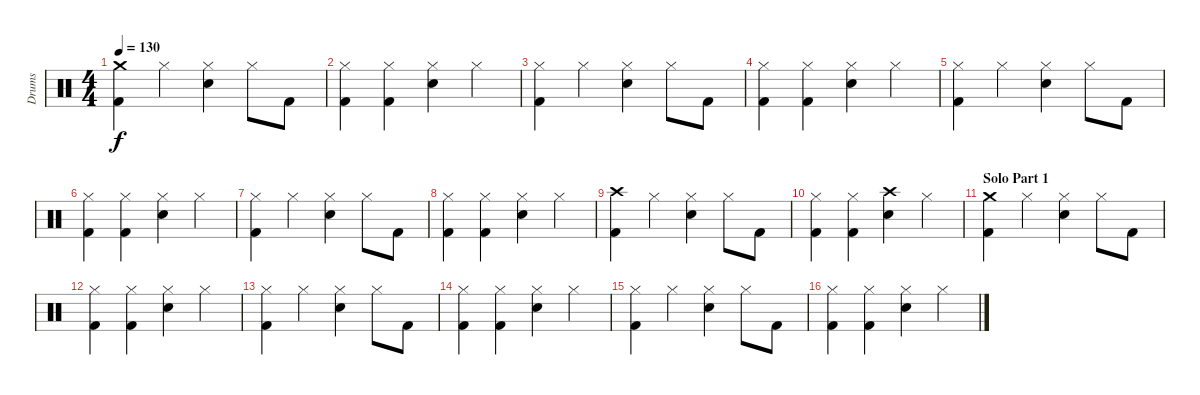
\track ("Drums" "Drums") {instrument percussion}
\staff {score}
\articulation defaults
\ts (4 4)
\tempo 130
\clef neutral
\ks c
("Crash medium (hit)" "Kick (hit) 2").4{dy f} "Hi-Hat (closed)".4 ("Hi-Hat (closed)" "Snare (hit) 2").4 "Hi-Hat (closed)".8 "Kick (hit) 2".8 |
("Hi-Hat (closed)" "Kick (hit) 2").4 ("Hi-Hat (closed)" "Kick (hit) 2").4 ("Hi-Hat (closed)" "Snare (hit) 2").4 "Hi-Hat (closed)".4 |
("Hi-Hat (closed)" "Kick (hit) 2").4 "Hi-Hat (closed)".4 ("Hi-Hat (closed)" "Snare (hit) 2").4 "Hi-Hat (closed)".8 "Kick (hit) 2".8 |
("Hi-Hat (closed)" "Kick (hit) 2").4 ("Hi-Hat (closed)" "Kick (hit) 2").4 ("Hi-Hat (closed)" "Snare (hit) 2").4 "Hi-Hat (closed)".4 |
("Hi-Hat (closed)" "Kick (hit) 2").4 "Hi-Hat (closed)".4 ("Hi-Hat (closed)" "Snare (hit) 2").4 "Hi-Hat (closed)".8 "Kick (hit) 2".8 |
("Hi-Hat (closed)" "Kick (hit) 2").4 ("Hi-Hat (closed)" "Kick (hit) 2").4 ("Hi-Hat (closed)" "Snare (hit) 2").4 "Hi-Hat (closed)".4 |
("Hi-Hat (closed)" "Kick (hit) 2").4 "Hi-Hat (closed)".4 ("Hi-Hat (closed)" "Snare (hit) 2").4 "Hi-Hat (closed)".8 "Kick (hit) 2".8 |
("Hi-Hat (closed)" "Kick (hit) 2").4 ("Hi-Hat (closed)" "Kick (hit) 2").4 ("Hi-Hat (closed)" "Snare (hit) 2").4 "Hi-Hat (closed)".4 |
("Crash high (hit)" "Kick (hit) 2").4 "Hi-Hat (closed)".4 ("Hi-Hat (closed)" "Snare (hit) 2").4 "Hi-Hat (closed)".8 "Kick (hit) 2".8 |
("Hi-Hat (closed)" "Kick (hit) 2").4 ("Hi-Hat (closed)" "Kick (hit) 2").4 ("Crash high (hit)" "Snare (hit) 2").4 "Hi-Hat (closed)".4 |
\section ("" "Solo Part 1")
("Crash medium (hit)" "Kick (hit) 2").4 "Hi-Hat (closed)".4 ("Hi-Hat (closed)" "Snare (hit) 2").4 "Hi-Hat (closed)".8 "Kick (hit) 2".8 |
("Hi-Hat (closed)" "Kick (hit) 2").4 ("Hi-Hat (closed)" "Kick (hit) 2").4 ("Hi-Hat (closed)" "Snare (hit) 2").4 "Hi-Hat (closed)".4 |
("Hi-Hat (closed)" "Kick (hit) 2").4 "Hi-Hat (closed)".4 ("Hi-Hat (closed)" "Snare (hit) 2").4 "Hi-Hat (closed)".8 "Kick (hit) 2".8 |
("Hi-Hat (closed)" "Kick (hit) 2").4 ("Hi-Hat (closed)" "Kick (hit) 2").4 ("Hi-Hat (closed)" "Snare (hit) 2").4 "Hi-Hat (closed)".4 |
("Hi-Hat (closed)" "Kick (hit) 2").4 "Hi-Hat (closed)".4 ("Hi-Hat (closed)" "Snare (hit) 2").4 "Hi-Hat (closed)".8 "Kick (hit) 2".8 |
("Hi-Hat (closed)" "Kick (hit) 2").4 ("Hi-Hat (closed)" "Kick (hit) 2").4 ("Hi-Hat (closed)" "Snare (hit) 2").4 "Hi-Hat (closed)".4
